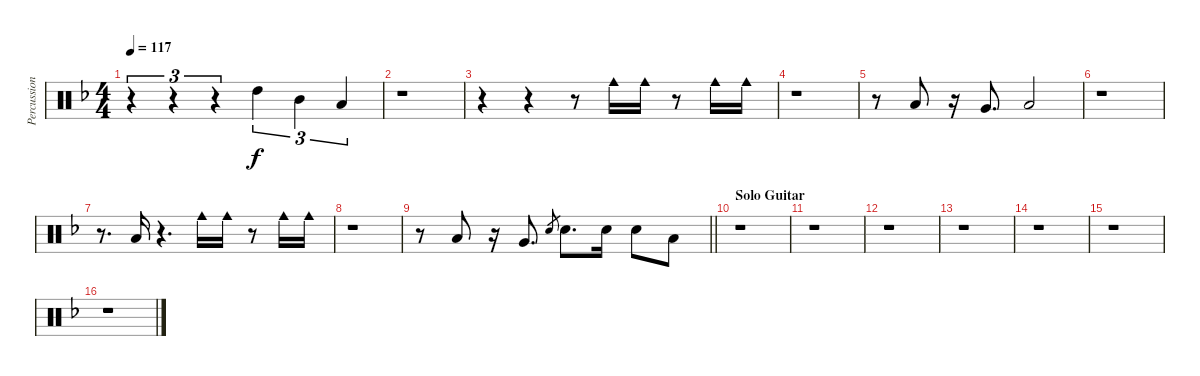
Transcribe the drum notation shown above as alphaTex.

\track ("Percussions" "Percussion") {instrument percussion}
\staff {score}
\articulation defaults
\ts (4 4)
\tempo 117
\clef neutral
\ks f
r.4{tu (3 2) dy f} r.4{tu (3 2)} r.4{tu (3 2)} "High Tom (hit)".4{tu (3 2)} "Mid Tom (hit)".4{tu (3 2)} "Low Tom (hit)".4{tu (3 2)} |
r.1 |
r.4 r.4 r.8 "Cowbell medium (hit)".16 "Cowbell medium (hit)".16 r.8 "Cowbell medium (hit)".16 "Cowbell medium (hit)".16 |
r.1 |
r.8 "Low Tom (hit)".8 r.16 "Very Low Tom (hit)".8{d} "Low Floor Tom (hit)".2 |
r.1 |
r.8{d} "Low Tom (hit)".16 r.4{d} "Cowbell medium (hit)".16 "Cowbell medium (hit)".16 r.8 "Cowbell medium (hit)".16 "Cowbell medium (hit)".16 |
r.1 |
\barLineRight lightlight
r.8 "Low Tom (hit)".8 r.16 "Very Low Tom (hit)".8{d} "Snare (hit) 2".8{gr} "Snare (hit) 2".8{d} "Snare (hit) 2".16 "Snare (hit) 2".8 "Low Tom (hit)".8 |
\section ("" "Solo Guitar")
r.1 |
r.1 |
r.1 |
r.1 |
r.1 |
r.1 |
r.1
